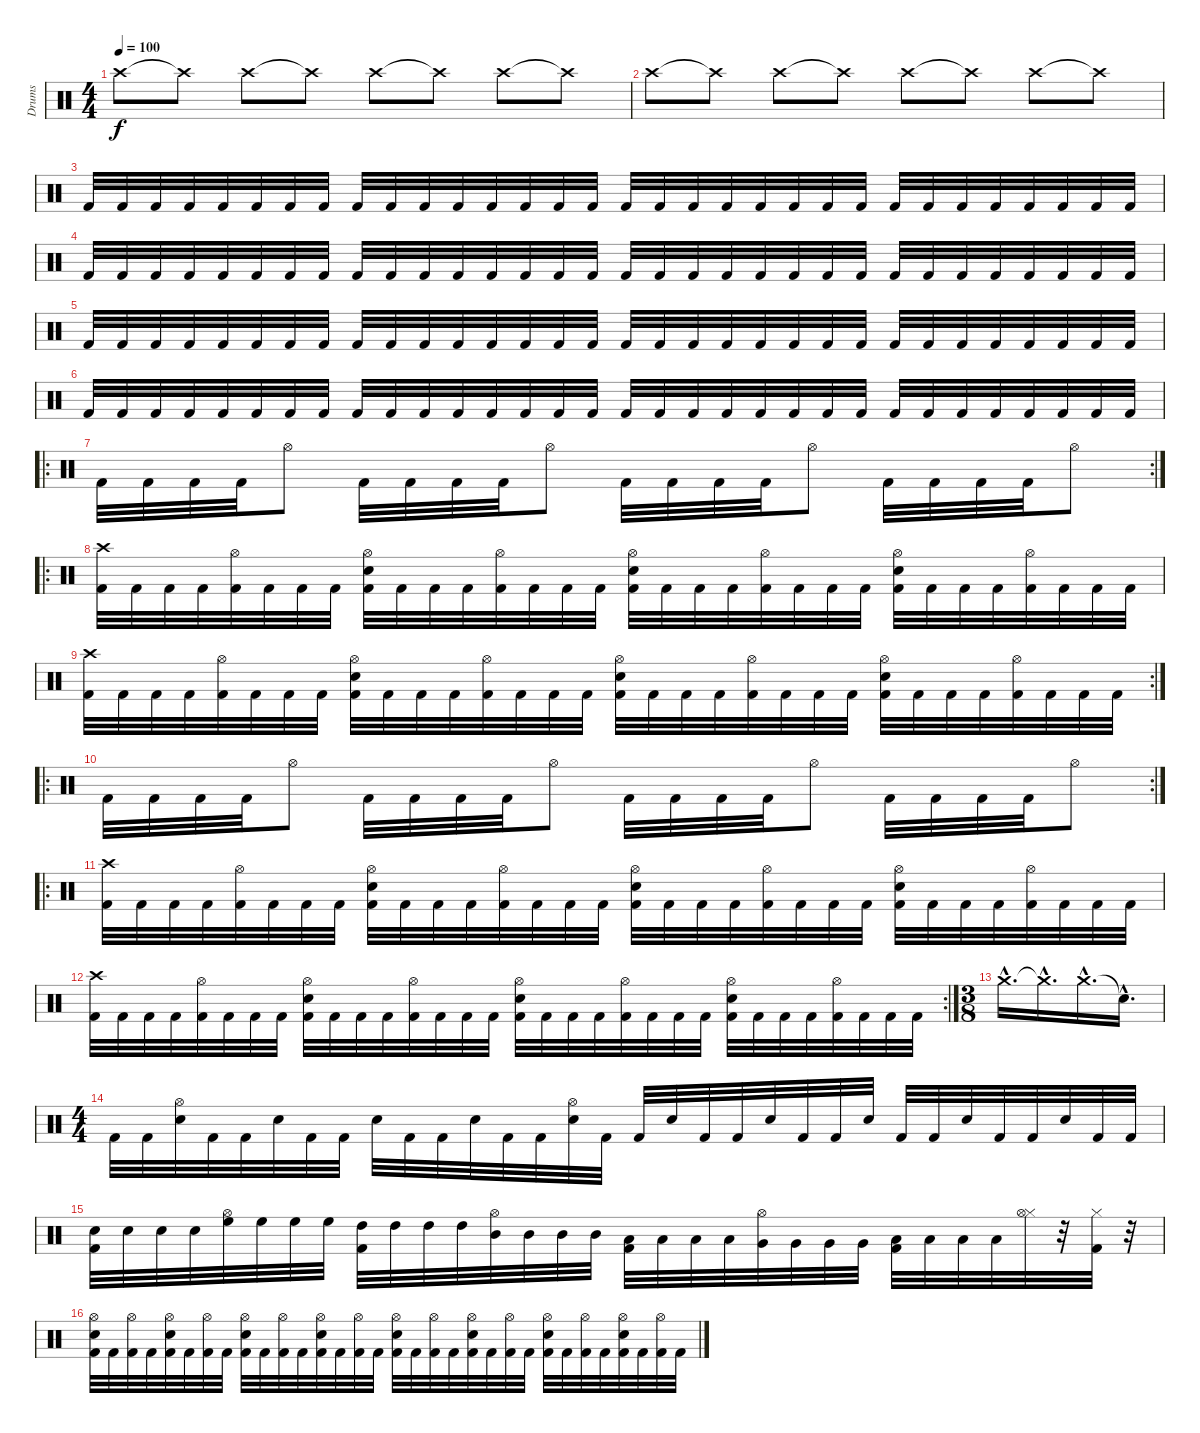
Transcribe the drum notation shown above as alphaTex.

\track ("Drums" "Drums") {instrument percussion}
\staff {score}
\articulation defaults
\ts (4 4)
\tempo 100
\clef neutral
\ks c "Crash high (hit)".8{dy f} "Crash high (hit)"{t}.8 "Crash high (hit)".8 "Crash high (hit)"{t}.8 "Crash high (hit)".8 "Crash high (hit)"{t}.8 "Crash high (hit)".8 "Crash high (hit)"{t}.8
|
"Crash high (hit)".8 "Crash high (hit)"{t}.8 "Crash high (hit)".8 "Crash high (hit)"{t}.8 "Crash high (hit)".8 "Crash high (hit)"{t}.8 "Crash high (hit)".8 "Crash high (hit)"{t}.8 |
"Kick (hit) 2".32 "Kick (hit) 2".32 "Kick (hit) 2".32 "Kick (hit) 2".32 "Kick (hit) 2".32 "Kick (hit) 2".32 "Kick (hit) 2".32 "Kick (hit) 2".32 "Kick (hit) 2".32 "Kick (hit) 2".32 "Kick (hit) 2".32 "Kick (hit) 2".32 "Kick (hit) 2".32 "Kick (hit) 2".32 "Kick (hit) 2".32 "Kick (hit) 2".32 "Kick (hit) 2".32 "Kick (hit) 2".32 "Kick (hit) 2".32 "Kick (hit) 2".32 "Kick (hit) 2".32 "Kick (hit) 2".32 "Kick (hit) 2".32 "Kick (hit) 2".32 "Kick (hit) 2".32 "Kick (hit) 2".32 "Kick (hit) 2".32 "Kick (hit) 2".32 "Kick (hit) 2".32 "Kick (hit) 2".32 "Kick (hit) 2".32 "Kick (hit) 2".32 |
"Kick (hit) 2".32 "Kick (hit) 2".32 "Kick (hit) 2".32 "Kick (hit) 2".32 "Kick (hit) 2".32 "Kick (hit) 2".32 "Kick (hit) 2".32 "Kick (hit) 2".32 "Kick (hit) 2".32 "Kick (hit) 2".32 "Kick (hit) 2".32 "Kick (hit) 2".32 "Kick (hit) 2".32 "Kick (hit) 2".32 "Kick (hit) 2".32 "Kick (hit) 2".32 "Kick (hit) 2".32 "Kick (hit) 2".32 "Kick (hit) 2".32 "Kick (hit) 2".32 "Kick (hit) 2".32 "Kick (hit) 2".32 "Kick (hit) 2".32 "Kick (hit) 2".32 "Kick (hit) 2".32 "Kick (hit) 2".32 "Kick (hit) 2".32 "Kick (hit) 2".32 "Kick (hit) 2".32 "Kick (hit) 2".32 "Kick (hit) 2".32 "Kick (hit) 2".32 |
"Kick (hit) 2".32 "Kick (hit) 2".32 "Kick (hit) 2".32 "Kick (hit) 2".32 "Kick (hit) 2".32 "Kick (hit) 2".32 "Kick (hit) 2".32 "Kick (hit) 2".32 "Kick (hit) 2".32 "Kick (hit) 2".32 "Kick (hit) 2".32 "Kick (hit) 2".32 "Kick (hit) 2".32 "Kick (hit) 2".32 "Kick (hit) 2".32 "Kick (hit) 2".32 "Kick (hit) 2".32 "Kick (hit) 2".32 "Kick (hit) 2".32 "Kick (hit) 2".32 "Kick (hit) 2".32 "Kick (hit) 2".32 "Kick (hit) 2".32 "Kick (hit) 2".32 "Kick (hit) 2".32 "Kick (hit) 2".32 "Kick (hit) 2".32 "Kick (hit) 2".32 "Kick (hit) 2".32 "Kick (hit) 2".32 "Kick (hit) 2".32 "Kick (hit) 2".32 |
"Kick (hit) 2".32 "Kick (hit) 2".32 "Kick (hit) 2".32 "Kick (hit) 2".32 "Kick (hit) 2".32 "Kick (hit) 2".32 "Kick (hit) 2".32 "Kick (hit) 2".32 "Kick (hit) 2".32 "Kick (hit) 2".32 "Kick (hit) 2".32 "Kick (hit) 2".32 "Kick (hit) 2".32 "Kick (hit) 2".32 "Kick (hit) 2".32 "Kick (hit) 2".32 "Kick (hit) 2".32 "Kick (hit) 2".32 "Kick (hit) 2".32 "Kick (hit) 2".32 "Kick (hit) 2".32 "Kick (hit) 2".32 "Kick (hit) 2".32 "Kick (hit) 2".32 "Kick (hit) 2".32 "Kick (hit) 2".32 "Kick (hit) 2".32 "Kick (hit) 2".32 "Kick (hit) 2".32 "Kick (hit) 2".32 "Kick (hit) 2".32 "Kick (hit) 2".32 |
\ro
\rc 2 "Kick (hit) 2".32 "Kick (hit) 2".32 "Kick (hit) 2".32 "Kick (hit) 2".32 "Hi-Hat (open)".8 "Kick (hit) 2".32 "Kick (hit) 2".32 "Kick (hit) 2".32 "Kick (hit) 2".32 "Hi-Hat (open)".8 "Kick (hit) 2".32 "Kick (hit) 2".32 "Kick (hit) 2".32 "Kick (hit) 2".32 "Hi-Hat (open)".8 "Kick (hit) 2".32 "Kick (hit) 2".32 "Kick (hit) 2".32 "Kick (hit) 2".32 "Hi-Hat (open)".8
|
\ro
("Crash high (hit)" "Kick (hit) 2").32 "Kick (hit) 2".32 "Kick (hit) 2".32 "Kick (hit) 2".32 ("Hi-Hat (open)" "Kick (hit) 2").32 "Kick (hit) 2".32 "Kick (hit) 2".32 "Kick (hit) 2".32 ("Hi-Hat (open)" "Electric Snare (hit)" "Kick (hit) 2").32 "Kick (hit) 2".32 "Kick (hit) 2".32 "Kick (hit) 2".32 ("Hi-Hat (open)" "Kick (hit) 2").32 "Kick (hit) 2".32 "Kick (hit) 2".32 "Kick (hit) 2".32 ("Hi-Hat (open)" "Electric Snare (hit)" "Kick (hit) 2").32 "Kick (hit) 2".32 "Kick (hit) 2".32 "Kick (hit) 2".32 ("Hi-Hat (open)" "Kick (hit) 2").32 "Kick (hit) 2".32 "Kick (hit) 2".32 "Kick (hit) 2".32 ("Hi-Hat (open)" "Electric Snare (hit)" "Kick (hit) 2").32 "Kick (hit) 2".32 "Kick (hit) 2".32 "Kick (hit) 2".32 ("Hi-Hat (open)" "Kick (hit) 2").32 "Kick (hit) 2".32 "Kick (hit) 2".32 "Kick (hit) 2".32 |
\rc 2
("Crash high (hit)" "Kick (hit) 2").32 "Kick (hit) 2".32 "Kick (hit) 2".32 "Kick (hit) 2".32 ("Hi-Hat (open)" "Kick (hit) 2").32 "Kick (hit) 2".32 "Kick (hit) 2".32 "Kick (hit) 2".32 ("Hi-Hat (open)" "Electric Snare (hit)" "Kick (hit) 2").32 "Kick (hit) 2".32 "Kick (hit) 2".32 "Kick (hit) 2".32 ("Hi-Hat (open)" "Kick (hit) 2").32 "Kick (hit) 2".32 "Kick (hit) 2".32 "Kick (hit) 2".32 ("Hi-Hat (open)" "Electric Snare (hit)" "Kick (hit) 2").32 "Kick (hit) 2".32 "Kick (hit) 2".32 "Kick (hit) 2".32 ("Hi-Hat (open)" "Kick (hit) 2").32 "Kick (hit) 2".32 "Kick (hit) 2".32 "Kick (hit) 2".32 ("Hi-Hat (open)" "Electric Snare (hit)" "Kick (hit) 2").32 "Kick (hit) 2".32 "Kick (hit) 2".32 "Kick (hit) 2".32 ("Hi-Hat (open)" "Kick (hit) 2").32 "Kick (hit) 2".32 "Kick (hit) 2".32 "Kick (hit) 2".32 |
\ro
\rc 2 "Kick (hit) 2".32 "Kick (hit) 2".32 "Kick (hit) 2".32 "Kick (hit) 2".32 "Hi-Hat (open)".8 "Kick (hit) 2".32 "Kick (hit) 2".32 "Kick (hit) 2".32 "Kick (hit) 2".32 "Hi-Hat (open)".8 "Kick (hit) 2".32 "Kick (hit) 2".32 "Kick (hit) 2".32 "Kick (hit) 2".32 "Hi-Hat (open)".8 "Kick (hit) 2".32 "Kick (hit) 2".32 "Kick (hit) 2".32 "Kick (hit) 2".32 "Hi-Hat (open)".8
|
\ro
("Crash high (hit)" "Kick (hit) 2").32 "Kick (hit) 2".32 "Kick (hit) 2".32 "Kick (hit) 2".32 ("Hi-Hat (open)" "Kick (hit) 2").32 "Kick (hit) 2".32 "Kick (hit) 2".32 "Kick (hit) 2".32 ("Hi-Hat (open)" "Electric Snare (hit)" "Kick (hit) 2").32 "Kick (hit) 2".32 "Kick (hit) 2".32 "Kick (hit) 2".32 ("Hi-Hat (open)" "Kick (hit) 2").32 "Kick (hit) 2".32 "Kick (hit) 2".32 "Kick (hit) 2".32 ("Hi-Hat (open)" "Electric Snare (hit)" "Kick (hit) 2").32 "Kick (hit) 2".32 "Kick (hit) 2".32 "Kick (hit) 2".32 ("Hi-Hat (open)" "Kick (hit) 2").32 "Kick (hit) 2".32 "Kick (hit) 2".32 "Kick (hit) 2".32 ("Hi-Hat (open)" "Electric Snare (hit)" "Kick (hit) 2").32 "Kick (hit) 2".32 "Kick (hit) 2".32 "Kick (hit) 2".32 ("Hi-Hat (open)" "Kick (hit) 2").32 "Kick (hit) 2".32 "Kick (hit) 2".32 "Kick (hit) 2".32 |
\rc 2
("Crash high (hit)" "Kick (hit) 2").32 "Kick (hit) 2".32 "Kick (hit) 2".32 "Kick (hit) 2".32 ("Hi-Hat (open)" "Kick (hit) 2").32 "Kick (hit) 2".32 "Kick (hit) 2".32 "Kick (hit) 2".32 ("Hi-Hat (open)" "Electric Snare (hit)" "Kick (hit) 2").32 "Kick (hit) 2".32 "Kick (hit) 2".32 "Kick (hit) 2".32 ("Hi-Hat (open)" "Kick (hit) 2").32 "Kick (hit) 2".32 "Kick (hit) 2".32 "Kick (hit) 2".32 ("Hi-Hat (open)" "Electric Snare (hit)" "Kick (hit) 2").32 "Kick (hit) 2".32 "Kick (hit) 2".32 "Kick (hit) 2".32 ("Hi-Hat (open)" "Kick (hit) 2").32 "Kick (hit) 2".32 "Kick (hit) 2".32 "Kick (hit) 2".32 ("Hi-Hat (open)" "Electric Snare (hit)" "Kick (hit) 2").32 "Kick (hit) 2".32 "Kick (hit) 2".32 "Kick (hit) 2".32 ("Hi-Hat (open)" "Kick (hit) 2").32 "Kick (hit) 2".32 "Kick (hit) 2".32 "Kick (hit) 2".32 |
\ts (3 8)
"Crash medium (hit)"{hac}.16{d} "Crash medium (hit)"{hac t}.16{d} "Crash medium (hit)"{hac}.16{d} "Snare (hit)"{hac t}.16{d} |
\ts (4 4)
"Kick (hit) 2".32 "Kick (hit) 2".32 ("Hi-Hat (open)" "Electric Snare (hit)").32 "Kick (hit) 2".32 "Kick (hit) 2".32 "Electric Snare (hit)".32 "Kick (hit) 2".32 "Kick (hit) 2".32 "Electric Snare (hit)".32 "Kick (hit) 2".32 "Kick (hit) 2".32 "Electric Snare (hit)".32 "Kick (hit) 2".32 "Kick (hit) 2".32 ("Hi-Hat (open)" "Electric Snare (hit)").32 "Kick (hit) 2".32 "Kick (hit) 2".32 "Electric Snare (hit)".32 "Kick (hit) 2".32 "Kick (hit) 2".32 "Electric Snare (hit)".32 "Kick (hit) 2".32 "Kick (hit) 2".32 "Electric Snare (hit)".32 "Kick (hit) 2".32 "Kick (hit) 2".32 "Electric Snare (hit)".32 "Kick (hit) 2".32 "Kick (hit) 2".32 "Electric Snare (hit)".32 "Kick (hit) 2".32 "Kick (hit) 2".32 |
("Electric Snare (hit)" "Kick (hit) 2").32 "Electric Snare (hit)".32 "Electric Snare (hit)".32 "Electric Snare (hit)".32 ("High Floor Tom (hit)" "Hi-Hat (open)").32 "High Floor Tom (hit)".32 "High Floor Tom (hit)".32 "High Floor Tom (hit)".32 ("High Tom (hit)" "Kick (hit) 2").32 "High Tom (hit)".32 "High Tom (hit)".32 "High Tom (hit)".32 ("Mid Tom (hit)" "Hi-Hat (open)").32 "Mid Tom (hit)".32 "Mid Tom (hit)".32 "Mid Tom (hit)".32 ("Low Tom (hit)" "Kick (hit) 2").32 "Low Tom (hit)".32 "Low Tom (hit)".32 "Low Tom (hit)".32 ("Very Low Tom (hit)" "Hi-Hat (open)").32 "Very Low Tom (hit)".32 "Very Low Tom (hit)".32 "Very Low Tom (hit)".32 ("Low Floor Tom (hit)" "Kick (hit) 2").32 "Low Floor Tom (hit)".32 "Low Floor Tom (hit)".32 "Low Floor Tom (hit)".32 ("Hi-Hat (closed)" "Hi-Hat (open)").32 r.32 ("Hi-Hat (closed)" "Kick (hit) 2").32 r.32 |
("Hi-Hat (open)" "Electric Snare (hit)" "Kick (hit) 2").32 "Kick (hit) 2".32 ("Hi-Hat (open)" "Kick (hit) 2").32 "Kick (hit) 2".32 ("Hi-Hat (open)" "Electric Snare (hit)" "Kick (hit) 2").32 "Kick (hit) 2".32 ("Hi-Hat (open)" "Kick (hit) 2").32 "Kick (hit) 2".32 ("Hi-Hat (open)" "Electric Snare (hit)" "Kick (hit) 2").32 "Kick (hit) 2".32 ("Hi-Hat (open)" "Kick (hit) 2").32 "Kick (hit) 2".32 ("Hi-Hat (open)" "Electric Snare (hit)" "Kick (hit) 2").32 "Kick (hit) 2".32 ("Hi-Hat (open)" "Kick (hit) 2").32 "Kick (hit) 2".32 ("Hi-Hat (open)" "Electric Snare (hit)" "Kick (hit) 2").32 "Kick (hit) 2".32 ("Hi-Hat (open)" "Kick (hit) 2").32 "Kick (hit) 2".32 ("Hi-Hat (open)" "Electric Snare (hit)" "Kick (hit) 2").32 "Kick (hit) 2".32 ("Hi-Hat (open)" "Kick (hit) 2").32 "Kick (hit) 2".32 ("Hi-Hat (open)" "Electric Snare (hit)" "Kick (hit) 2").32 "Kick (hit) 2".32 ("Hi-Hat (open)" "Kick (hit) 2").32 "Kick (hit) 2".32 ("Hi-Hat (open)" "Electric Snare (hit)" "Kick (hit) 2").32 "Kick (hit) 2".32 ("Hi-Hat (open)" "Kick (hit) 2").32 "Kick (hit) 2".32
